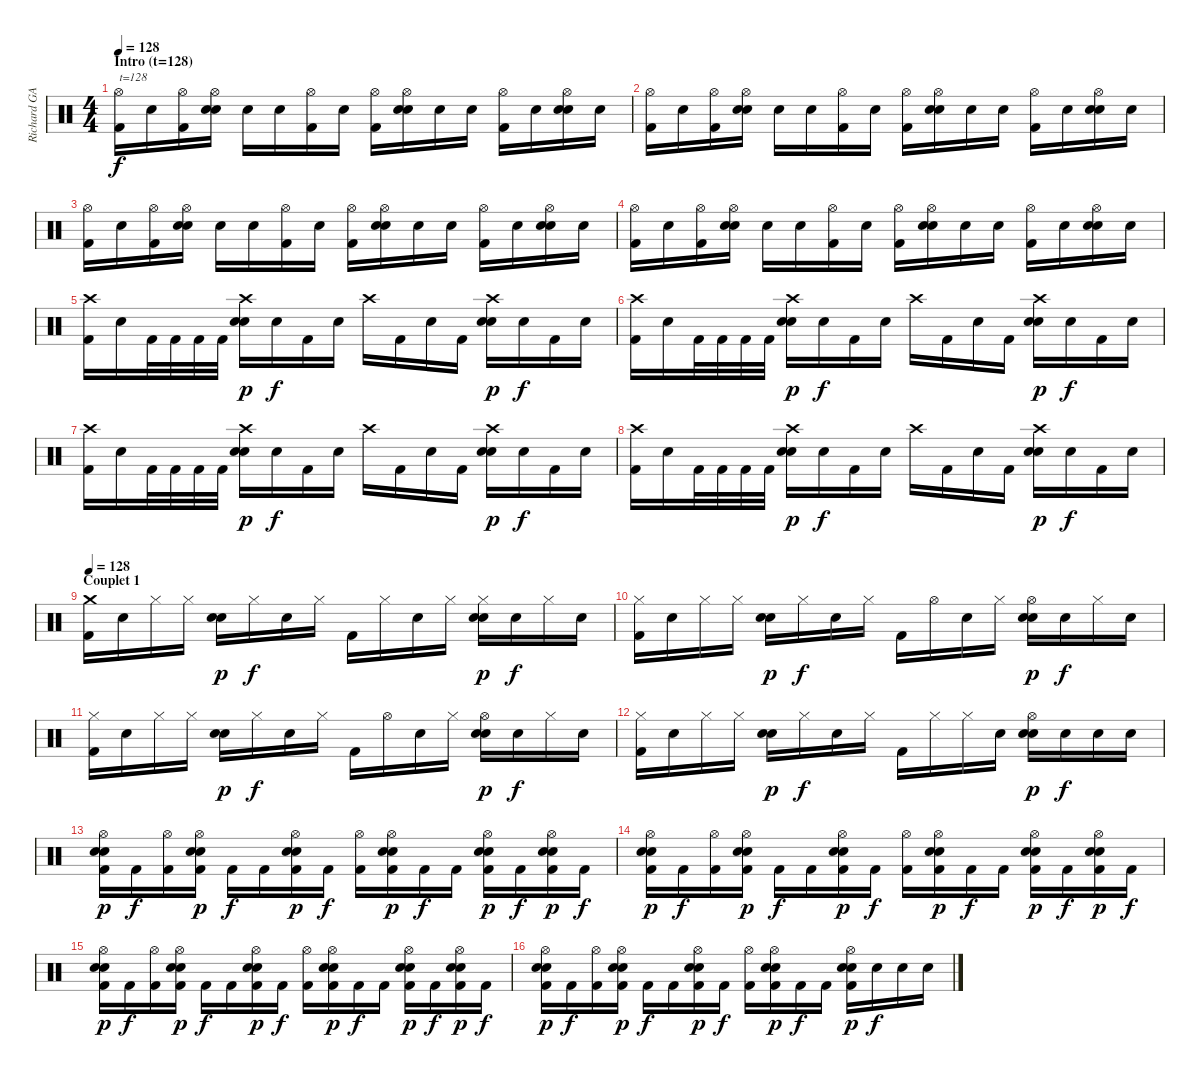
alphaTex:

\track ("Richard GAMBA - Batterie" "Richard GA") {instrument percussion}
\staff {score}
\articulation defaults
\ts (4 4)
\section ("" "Intro (t=128)")
\tempo 128
\clef neutral
\ks c
("Hi-Hat (open)" "Kick (hit) 2").16{txt "t=128" dy f volume 16 balance 8} "Snare (hit)".16 ("Hi-Hat (open)" "Kick (hit) 2").16 ("Hi-Hat (open)" "Electric Snare (hit)" "Electric Snare (hit)").16 "Snare (hit)".16 "Snare (hit)".16 ("Hi-Hat (open)" "Kick (hit) 2").16 "Snare (hit)".16 ("Hi-Hat (open)" "Kick (hit) 2").16 ("Hi-Hat (open)" "Electric Snare (hit)" "Electric Snare (hit)").16 "Snare (hit)".16 "Snare (hit)".16 ("Hi-Hat (open)" "Kick (hit) 2").16 "Snare (hit)".16 ("Hi-Hat (open)" "Electric Snare (hit)" "Electric Snare (hit)").16 "Snare (hit)".16 |
("Hi-Hat (open)" "Kick (hit) 2").16 "Snare (hit)".16 ("Hi-Hat (open)" "Kick (hit) 2").16 ("Hi-Hat (open)" "Electric Snare (hit)" "Electric Snare (hit)").16 "Snare (hit)".16 "Snare (hit)".16 ("Hi-Hat (open)" "Kick (hit) 2").16 "Snare (hit)".16 ("Hi-Hat (open)" "Kick (hit) 2").16 ("Hi-Hat (open)" "Electric Snare (hit)" "Electric Snare (hit)").16 "Snare (hit)".16 "Snare (hit)".16 ("Hi-Hat (open)" "Kick (hit) 2").16 "Snare (hit)".16 ("Hi-Hat (open)" "Electric Snare (hit)" "Electric Snare (hit)").16 "Snare (hit)".16 |
("Hi-Hat (open)" "Kick (hit) 2").16 "Snare (hit)".16 ("Hi-Hat (open)" "Kick (hit) 2").16 ("Hi-Hat (open)" "Electric Snare (hit)" "Electric Snare (hit)").16 "Snare (hit)".16 "Snare (hit)".16 ("Hi-Hat (open)" "Kick (hit) 2").16 "Snare (hit)".16 ("Hi-Hat (open)" "Kick (hit) 2").16 ("Hi-Hat (open)" "Electric Snare (hit)" "Electric Snare (hit)").16 "Snare (hit)".16 "Snare (hit)".16 ("Hi-Hat (open)" "Kick (hit) 2").16 "Snare (hit)".16 ("Hi-Hat (open)" "Electric Snare (hit)" "Electric Snare (hit)").16 "Snare (hit)".16 |
("Hi-Hat (open)" "Kick (hit) 2").16 "Snare (hit)".16 ("Hi-Hat (open)" "Kick (hit) 2").16 ("Hi-Hat (open)" "Electric Snare (hit)" "Electric Snare (hit)").16 "Snare (hit)".16 "Snare (hit)".16 ("Hi-Hat (open)" "Kick (hit) 2").16 "Snare (hit)".16 ("Hi-Hat (open)" "Kick (hit) 2").16 ("Hi-Hat (open)" "Electric Snare (hit)" "Electric Snare (hit)").16 "Snare (hit)".16 "Snare (hit)".16 ("Hi-Hat (open)" "Kick (hit) 2").16 "Snare (hit)".16 ("Hi-Hat (open)" "Electric Snare (hit)" "Electric Snare (hit)").16 "Snare (hit)".16 |
\section ("" "")
("Crash high (hit)" "Kick (hit) 2").16 "Snare (hit)".16 "Kick (hit) 2".32 "Kick (hit) 2".32 "Kick (hit) 2".32 "Kick (hit) 2".32 ("Crash high (hit)" "Electric Snare (hit)" "Snare (hit) 2").16{dy p} "Snare (hit)".16{dy f} "Kick (hit) 2".16 "Snare (hit)".16 "Crash high (hit)".16 "Kick (hit) 2".16 "Snare (hit)".16 "Kick (hit) 2".16 ("Crash high (hit)" "Electric Snare (hit)" "Snare (hit) 2").16{dy p} "Snare (hit)".16{dy f} "Kick (hit) 2".16 "Snare (hit)".16 |
("Crash high (hit)" "Kick (hit) 2").16 "Snare (hit)".16 "Kick (hit) 2".32 "Kick (hit) 2".32 "Kick (hit) 2".32 "Kick (hit) 2".32 ("Crash high (hit)" "Electric Snare (hit)" "Snare (hit) 2").16{dy p} "Snare (hit)".16{dy f} "Kick (hit) 2".16 "Snare (hit)".16 "Crash high (hit)".16 "Kick (hit) 2".16 "Snare (hit)".16 "Kick (hit) 2".16 ("Crash high (hit)" "Electric Snare (hit)" "Snare (hit) 2").16{dy p} "Snare (hit)".16{dy f} "Kick (hit) 2".16 "Snare (hit)".16 |
("Crash high (hit)" "Kick (hit) 2").16 "Snare (hit)".16 "Kick (hit) 2".32 "Kick (hit) 2".32 "Kick (hit) 2".32 "Kick (hit) 2".32 ("Crash high (hit)" "Electric Snare (hit)" "Snare (hit) 2").16{dy p} "Snare (hit)".16{dy f} "Kick (hit) 2".16 "Snare (hit)".16 "Crash high (hit)".16 "Kick (hit) 2".16 "Snare (hit)".16 "Kick (hit) 2".16 ("Crash high (hit)" "Electric Snare (hit)" "Snare (hit) 2").16{dy p} "Snare (hit)".16{dy f} "Kick (hit) 2".16 "Snare (hit)".16 |
("Crash high (hit)" "Kick (hit) 2").16 "Snare (hit)".16 "Kick (hit) 2".32 "Kick (hit) 2".32 "Kick (hit) 2".32 "Kick (hit) 2".32 ("Crash high (hit)" "Electric Snare (hit)" "Snare (hit) 2").16{dy p} "Snare (hit)".16{dy f} "Kick (hit) 2".16 "Snare (hit)".16 "Crash high (hit)".16 "Kick (hit) 2".16 "Snare (hit)".16 "Kick (hit) 2".16 ("Crash high (hit)" "Electric Snare (hit)" "Snare (hit) 2").16{dy p} "Snare (hit)".16{dy f} "Kick (hit) 2".16 "Snare (hit)".16 |
\section ("" "Couplet 1")
\tempo 128
("Crash medium (hit)" "Kick (hit) 2").16{volume 16 balance 8} "Snare (hit)".16 "Hi-Hat (closed)".16 "Hi-Hat (closed)".16 ("Electric Snare (hit)" "Snare (hit) 2").16{dy p} "Hi-Hat (closed)".16{dy f} "Snare (hit)".16 "Hi-Hat (closed)".16 "Kick (hit) 2".16 "Hi-Hat (closed)".16 "Snare (hit)".16 "Hi-Hat (closed)".16 ("Hi-Hat (closed)" "Electric Snare (hit)" "Snare (hit) 2").16{dy p} "Snare (hit)".16{dy f} "Hi-Hat (closed)".16 "Snare (hit)".16 |
("Hi-Hat (closed)" "Kick (hit) 2").16 "Snare (hit)".16 "Hi-Hat (closed)".16 "Hi-Hat (closed)".16 ("Electric Snare (hit)" "Snare (hit) 2").16{dy p} "Hi-Hat (closed)".16{dy f} "Snare (hit)".16 "Hi-Hat (closed)".16 "Kick (hit) 2".16 "Hi-Hat (open)".16 "Snare (hit)".16 "Hi-Hat (closed)".16 ("Hi-Hat (open)" "Electric Snare (hit)" "Snare (hit) 2").16{dy p} "Snare (hit)".16{dy f} "Hi-Hat (closed)".16 "Snare (hit)".16 |
("Hi-Hat (closed)" "Kick (hit) 2").16 "Snare (hit)".16 "Hi-Hat (closed)".16 "Hi-Hat (closed)".16 ("Electric Snare (hit)" "Snare (hit) 2").16{dy p} "Hi-Hat (closed)".16{dy f} "Snare (hit)".16 "Hi-Hat (closed)".16 "Kick (hit) 2".16 "Hi-Hat (open)".16 "Snare (hit)".16 "Hi-Hat (closed)".16 ("Hi-Hat (open)" "Electric Snare (hit)" "Snare (hit) 2").16{dy p} "Snare (hit)".16{dy f} "Hi-Hat (closed)".16 "Snare (hit)".16 |
("Hi-Hat (closed)" "Kick (hit) 2").16 "Snare (hit)".16 "Hi-Hat (closed)".16 "Hi-Hat (closed)".16 ("Electric Snare (hit)" "Snare (hit) 2").16{dy p} "Hi-Hat (closed)".16{dy f} "Snare (hit)".16 "Hi-Hat (closed)".16 "Kick (hit) 2".16 "Hi-Hat (closed)".16 "Hi-Hat (closed)".16 "Snare (hit)".16 ("Hi-Hat (open)" "Electric Snare (hit)" "Snare (hit) 2").16{dy p} "Snare (hit)".16{dy f} "Snare (hit)".16 "Snare (hit)".16 |
\section ("" "")
("Hi-Hat (open)" "Electric Snare (hit)" "Snare (hit) 2" "Kick (hit) 2").16{dy p} "Kick (hit) 2".16{dy f} ("Hi-Hat (open)" "Kick (hit) 2").16 ("Hi-Hat (open)" "Electric Snare (hit)" "Snare (hit) 2" "Kick (hit) 2").16{dy p} "Kick (hit) 2".16{dy f} "Kick (hit) 2".16 ("Hi-Hat (open)" "Electric Snare (hit)" "Snare (hit) 2" "Kick (hit) 2").16{dy p} "Kick (hit) 2".16{dy f} ("Hi-Hat (open)" "Kick (hit) 2").16 ("Hi-Hat (open)" "Electric Snare (hit)" "Snare (hit) 2" "Kick (hit) 2").16{dy p} "Kick (hit) 2".16{dy f} "Kick (hit) 2".16 ("Hi-Hat (open)" "Electric Snare (hit)" "Snare (hit) 2" "Kick (hit) 2").16{dy p} "Kick (hit) 2".16{dy f} ("Hi-Hat (open)" "Electric Snare (hit)" "Snare (hit) 2" "Kick (hit) 2").16{dy p} "Kick (hit) 2".16{dy f} |
("Hi-Hat (open)" "Electric Snare (hit)" "Snare (hit) 2" "Kick (hit) 2").16{dy p} "Kick (hit) 2".16{dy f} ("Hi-Hat (open)" "Kick (hit) 2").16 ("Hi-Hat (open)" "Electric Snare (hit)" "Snare (hit) 2" "Kick (hit) 2").16{dy p} "Kick (hit) 2".16{dy f} "Kick (hit) 2".16 ("Hi-Hat (open)" "Electric Snare (hit)" "Snare (hit) 2" "Kick (hit) 2").16{dy p} "Kick (hit) 2".16{dy f} ("Hi-Hat (open)" "Kick (hit) 2").16 ("Hi-Hat (open)" "Electric Snare (hit)" "Snare (hit) 2" "Kick (hit) 2").16{dy p} "Kick (hit) 2".16{dy f} "Kick (hit) 2".16 ("Hi-Hat (open)" "Electric Snare (hit)" "Snare (hit) 2" "Kick (hit) 2").16{dy p} "Kick (hit) 2".16{dy f} ("Hi-Hat (open)" "Electric Snare (hit)" "Snare (hit) 2" "Kick (hit) 2").16{dy p} "Kick (hit) 2".16{dy f} |
("Hi-Hat (open)" "Electric Snare (hit)" "Snare (hit) 2" "Kick (hit) 2").16{dy p} "Kick (hit) 2".16{dy f} ("Hi-Hat (open)" "Kick (hit) 2").16 ("Hi-Hat (open)" "Electric Snare (hit)" "Snare (hit) 2" "Kick (hit) 2").16{dy p} "Kick (hit) 2".16{dy f} "Kick (hit) 2".16 ("Hi-Hat (open)" "Electric Snare (hit)" "Snare (hit) 2" "Kick (hit) 2").16{dy p} "Kick (hit) 2".16{dy f} ("Hi-Hat (open)" "Kick (hit) 2").16 ("Hi-Hat (open)" "Electric Snare (hit)" "Snare (hit) 2" "Kick (hit) 2").16{dy p} "Kick (hit) 2".16{dy f} "Kick (hit) 2".16 ("Hi-Hat (open)" "Electric Snare (hit)" "Snare (hit) 2" "Kick (hit) 2").16{dy p} "Kick (hit) 2".16{dy f} ("Hi-Hat (open)" "Electric Snare (hit)" "Snare (hit) 2" "Kick (hit) 2").16{dy p} "Kick (hit) 2".16{dy f} |
("Hi-Hat (open)" "Electric Snare (hit)" "Snare (hit) 2" "Kick (hit) 2").16{dy p} "Kick (hit) 2".16{dy f} ("Hi-Hat (open)" "Kick (hit) 2").16 ("Hi-Hat (open)" "Electric Snare (hit)" "Snare (hit) 2" "Kick (hit) 2").16{dy p} "Kick (hit) 2".16{dy f} "Kick (hit) 2".16 ("Hi-Hat (open)" "Electric Snare (hit)" "Snare (hit) 2" "Kick (hit) 2").16{dy p} "Kick (hit) 2".16{dy f} ("Hi-Hat (open)" "Kick (hit) 2").16 ("Hi-Hat (open)" "Electric Snare (hit)" "Snare (hit) 2" "Kick (hit) 2").16{dy p} "Kick (hit) 2".16{dy f} "Kick (hit) 2".16 ("Hi-Hat (open)" "Electric Snare (hit)" "Snare (hit) 2" "Kick (hit) 2").16{dy p} "Snare (hit)".16{dy f} "Snare (hit)".16 "Snare (hit)".16
